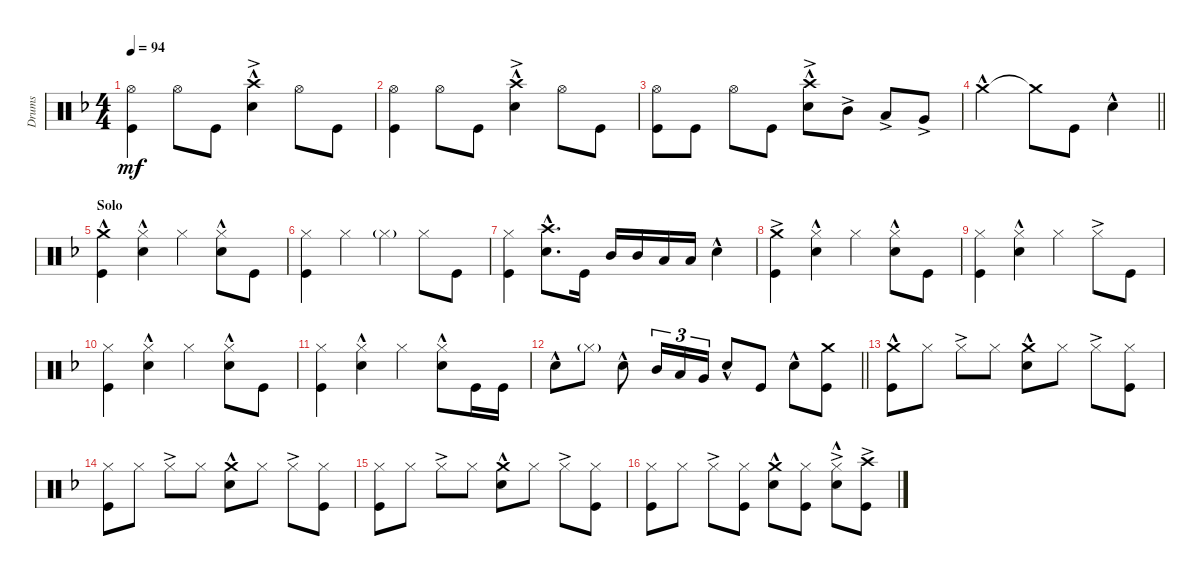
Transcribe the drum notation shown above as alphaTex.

\track ("Drums" "Drums") {instrument percussion}
\staff {score}
\articulation defaults
\ts (4 4)
\tempo 94
\clef neutral
\ks dminor
("Kick (hit)" "Hi-Hat (open)").4{dy mf} "Hi-Hat (open)".8 "Kick (hit)".8 ("Snare (hit) 2"{hac} "Crash high (hit)"{ac}).4 "Hi-Hat (open)".8 "Kick (hit)".8 |
("Kick (hit)" "Hi-Hat (open)").4 "Hi-Hat (open)".8 "Kick (hit)".8 ("Snare (hit) 2"{hac} "Crash high (hit)"{ac}).4 "Hi-Hat (open)".8 "Kick (hit)".8 |
("Kick (hit)" "Hi-Hat (open)").8 "Kick (hit)".8 "Hi-Hat (open)".8 "Kick (hit)".8 ("Snare (hit) 2"{hac} "Crash high (hit)"{ac}).8 "Mid Tom (hit)"{ac}.8 "Low Tom (hit)"{ac}.8 "Very Low Tom (hit)"{ac}.8 |
\barLineRight lightlight "Crash medium (hit)"{hac}.2 "Crash medium (hit)"{t}.8 "Kick (hit)".8 "Snare (hit) 2"{hac}.4
|
\section ("" "Solo")
("Kick (hit)" "Crash medium (hit)"{hac}).4 ("Snare (hit) 2"{hac} "Hi-Hat (closed)").4 "Hi-Hat (closed)".4 ("Hi-Hat (closed)" "Snare (hit) 2"{hac}).8 "Kick (hit)".8 |
("Hi-Hat (closed)" "Kick (hit)").4 "Hi-Hat (closed)".4 "Hi-Hat (closed)"{g}.4 "Hi-Hat (closed)".8 "Kick (hit)".8 |
("Kick (hit)" "Hi-Hat (closed)").4 ("Snare (hit) 2"{hac} "Crash high (hit)").8{d} "Kick (hit)".16 "Mid Tom (hit)".16 "Mid Tom (hit)".16 "Low Tom (hit)".16 "Low Tom (hit)".16 "Snare (hit) 2"{hac}.4 |
("Kick (hit)" "Crash medium (hit)"{ac}).4 ("Snare (hit) 2"{hac} "Hi-Hat (closed)").4 "Hi-Hat (closed)".4 ("Hi-Hat (closed)" "Snare (hit) 2"{hac}).8 "Kick (hit)".8 |
("Kick (hit)" "Hi-Hat (closed)").4 ("Snare (hit) 2"{hac} "Hi-Hat (closed)").4 "Hi-Hat (closed)".4 "Hi-Hat (closed)"{ac}.8 "Kick (hit)".8 |
("Kick (hit)" "Hi-Hat (closed)").4 ("Snare (hit) 2"{hac} "Hi-Hat (closed)").4 "Hi-Hat (closed)".4 ("Hi-Hat (closed)" "Snare (hit) 2"{hac}).8 "Kick (hit)".8 |
("Kick (hit)" "Hi-Hat (closed)").4 ("Snare (hit) 2"{hac} "Hi-Hat (closed)").4 "Hi-Hat (closed)".4 ("Hi-Hat (closed)" "Snare (hit) 2"{hac}).8 "Kick (hit)".16 "Kick (hit)".16 |
\barLineRight lightlight "Snare (hit) 2"{hac}.8 "Hi-Hat (closed)"{g}.8 "Snare (hit) 2"{hac}.8 "Mid Tom (hit)".16{tu (3 2)} "Low Tom (hit)".16{tu (3 2)} "Very Low Tom (hit)".16{tu (3 2)} "Snare (hit) 2"{hac}.8 "Kick (hit)".8 "Snare (hit) 2"{hac}.8
("Kick (hit)" "Crash medium (hit)").8 |
("Crash medium (hit)"{hac} "Kick (hit)").8 "Hi-Hat (closed)".8 "Hi-Hat (closed)"{ac}.8 "Hi-Hat (closed)".8 ("Crash medium (hit)" "Snare (hit) 2"{hac}).8 "Hi-Hat (closed)".8 "Hi-Hat (closed)"{ac}.8 ("Hi-Hat (closed)" "Kick (hit)").8 |
("Kick (hit)" "Hi-Hat (closed)").8 "Hi-Hat (closed)".8 "Hi-Hat (closed)"{ac}.8 "Hi-Hat (closed)".8 ("Crash medium (hit)" "Snare (hit) 2"{hac}).8 "Hi-Hat (closed)".8 "Hi-Hat (closed)"{ac}.8 ("Hi-Hat (closed)" "Kick (hit)").8 |
("Kick (hit)" "Hi-Hat (closed)").8 "Hi-Hat (closed)".8 "Hi-Hat (closed)"{ac}.8 "Hi-Hat (closed)".8 ("Crash medium (hit)" "Snare (hit) 2"{hac}).8 "Hi-Hat (closed)".8 "Hi-Hat (closed)"{ac}.8 ("Hi-Hat (closed)" "Kick (hit)").8 |
("Kick (hit)" "Hi-Hat (closed)").8 "Hi-Hat (closed)".8 "Hi-Hat (closed)"{ac}.8 ("Hi-Hat (closed)" "Kick (hit)").8 ("Crash medium (hit)" "Snare (hit) 2"{hac}).8 ("Hi-Hat (closed)" "Kick (hit)").8 ("Hi-Hat (closed)"{ac} "Snare (hit) 2"{hac}).8 ("Kick (hit)" "Crash high (hit)"{ac}).8
